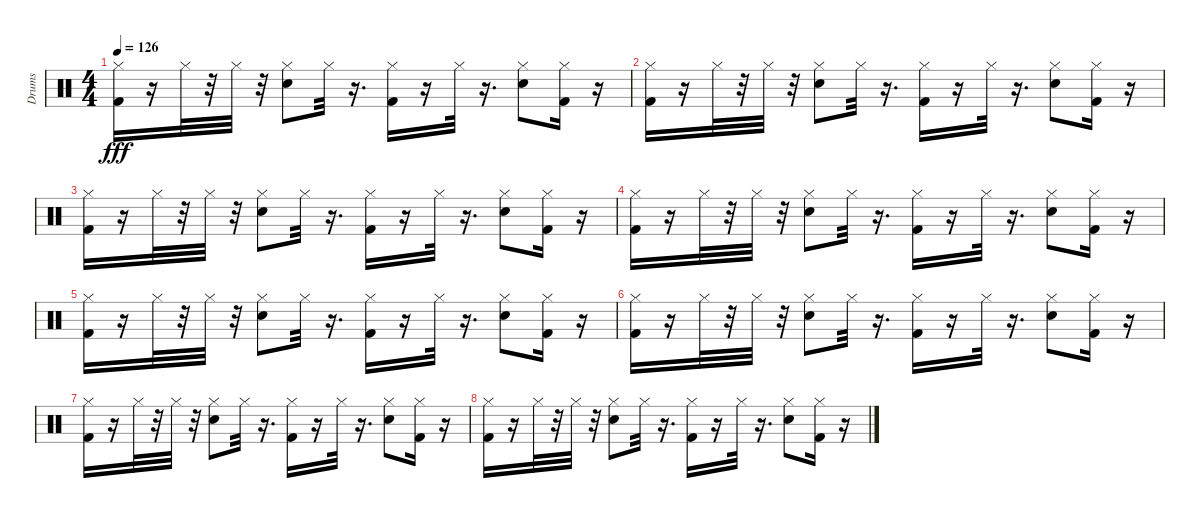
\track ("Drums" "Drums") {instrument percussion}
\staff {score}
\articulation defaults
\ts (4 4)
\tempo 126
\clef neutral
\ks c
("Hi-Hat (closed)" "Kick (hit) 2").16{dy fff} r.16 "Hi-Hat (closed)".32 r.32 "Hi-Hat (closed)".32 r.32 ("Snare (hit) 2" "Hi-Hat (closed)").8 "Hi-Hat (closed)".32 r.16{d} ("Kick (hit) 2" "Hi-Hat (closed)").16 r.16 "Hi-Hat (closed)".32 r.16{d} ("Snare (hit) 2" "Hi-Hat (closed)").8 ("Hi-Hat (closed)" "Kick (hit) 2").16 r.16 |
("Kick (hit) 2" "Hi-Hat (closed)").16 r.16 "Hi-Hat (closed)".32 r.32 "Hi-Hat (closed)".32 r.32 ("Snare (hit) 2" "Hi-Hat (closed)").8 "Hi-Hat (closed)".32 r.16{d} ("Kick (hit) 2" "Hi-Hat (closed)").16 r.16 "Hi-Hat (closed)".32 r.16{d} ("Snare (hit) 2" "Hi-Hat (closed)").8 ("Kick (hit) 2" "Hi-Hat (closed)").16 r.16 |
("Hi-Hat (closed)" "Kick (hit) 2").16 r.16 "Hi-Hat (closed)".32 r.32 "Hi-Hat (closed)".32 r.32 ("Hi-Hat (closed)" "Snare (hit) 2").8 "Hi-Hat (closed)".32 r.16{d} ("Kick (hit) 2" "Hi-Hat (closed)").16 r.16 "Hi-Hat (closed)".32 r.16{d} ("Snare (hit) 2" "Hi-Hat (closed)").8 ("Kick (hit) 2" "Hi-Hat (closed)").16 r.16 |
("Hi-Hat (closed)" "Kick (hit) 2").16 r.16 "Hi-Hat (closed)".32 r.32 "Hi-Hat (closed)".32 r.32 ("Hi-Hat (closed)" "Snare (hit) 2").8 "Hi-Hat (closed)".32 r.16{d} ("Hi-Hat (closed)" "Kick (hit) 2").16 r.16 "Hi-Hat (closed)".32 r.16{d} ("Hi-Hat (closed)" "Snare (hit) 2").8 ("Kick (hit) 2" "Hi-Hat (closed)").16 r.16 |
("Hi-Hat (closed)" "Kick (hit) 2").16 r.16 "Hi-Hat (closed)".32 r.32 "Hi-Hat (closed)".32 r.32 ("Snare (hit) 2" "Hi-Hat (closed)").8 "Hi-Hat (closed)".32 r.16{d} ("Hi-Hat (closed)" "Kick (hit) 2").16 r.16 "Hi-Hat (closed)".32 r.16{d} ("Snare (hit) 2" "Hi-Hat (closed)").8 ("Hi-Hat (closed)" "Kick (hit) 2").16 r.16 |
("Hi-Hat (closed)" "Kick (hit) 2").16 r.16 "Hi-Hat (closed)".32 r.32 "Hi-Hat (closed)".32 r.32 ("Snare (hit) 2" "Hi-Hat (closed)").8 "Hi-Hat (closed)".32 r.16{d} ("Kick (hit) 2" "Hi-Hat (closed)").16 r.16 "Hi-Hat (closed)".32 r.16{d} ("Hi-Hat (closed)" "Snare (hit) 2").8 ("Hi-Hat (closed)" "Kick (hit) 2").16 r.16 |
("Hi-Hat (closed)" "Kick (hit) 2").16 r.16 "Hi-Hat (closed)".32 r.32 "Hi-Hat (closed)".32 r.32 ("Snare (hit) 2" "Hi-Hat (closed)").8 "Hi-Hat (closed)".32 r.16{d} ("Kick (hit) 2" "Hi-Hat (closed)").16 r.16 "Hi-Hat (closed)".32 r.16{d} ("Hi-Hat (closed)" "Snare (hit) 2").8 ("Hi-Hat (closed)" "Kick (hit) 2").16 r.16 |
("Kick (hit) 2" "Hi-Hat (closed)").16 r.16 "Hi-Hat (closed)".32 r.32 "Hi-Hat (closed)".32 r.32 ("Hi-Hat (closed)" "Snare (hit) 2").8 "Hi-Hat (closed)".32 r.16{d} ("Kick (hit) 2" "Hi-Hat (closed)").16 r.16 "Hi-Hat (closed)".32 r.16{d} ("Hi-Hat (closed)" "Snare (hit) 2").8 ("Kick (hit) 2" "Hi-Hat (closed)").16 r.16
